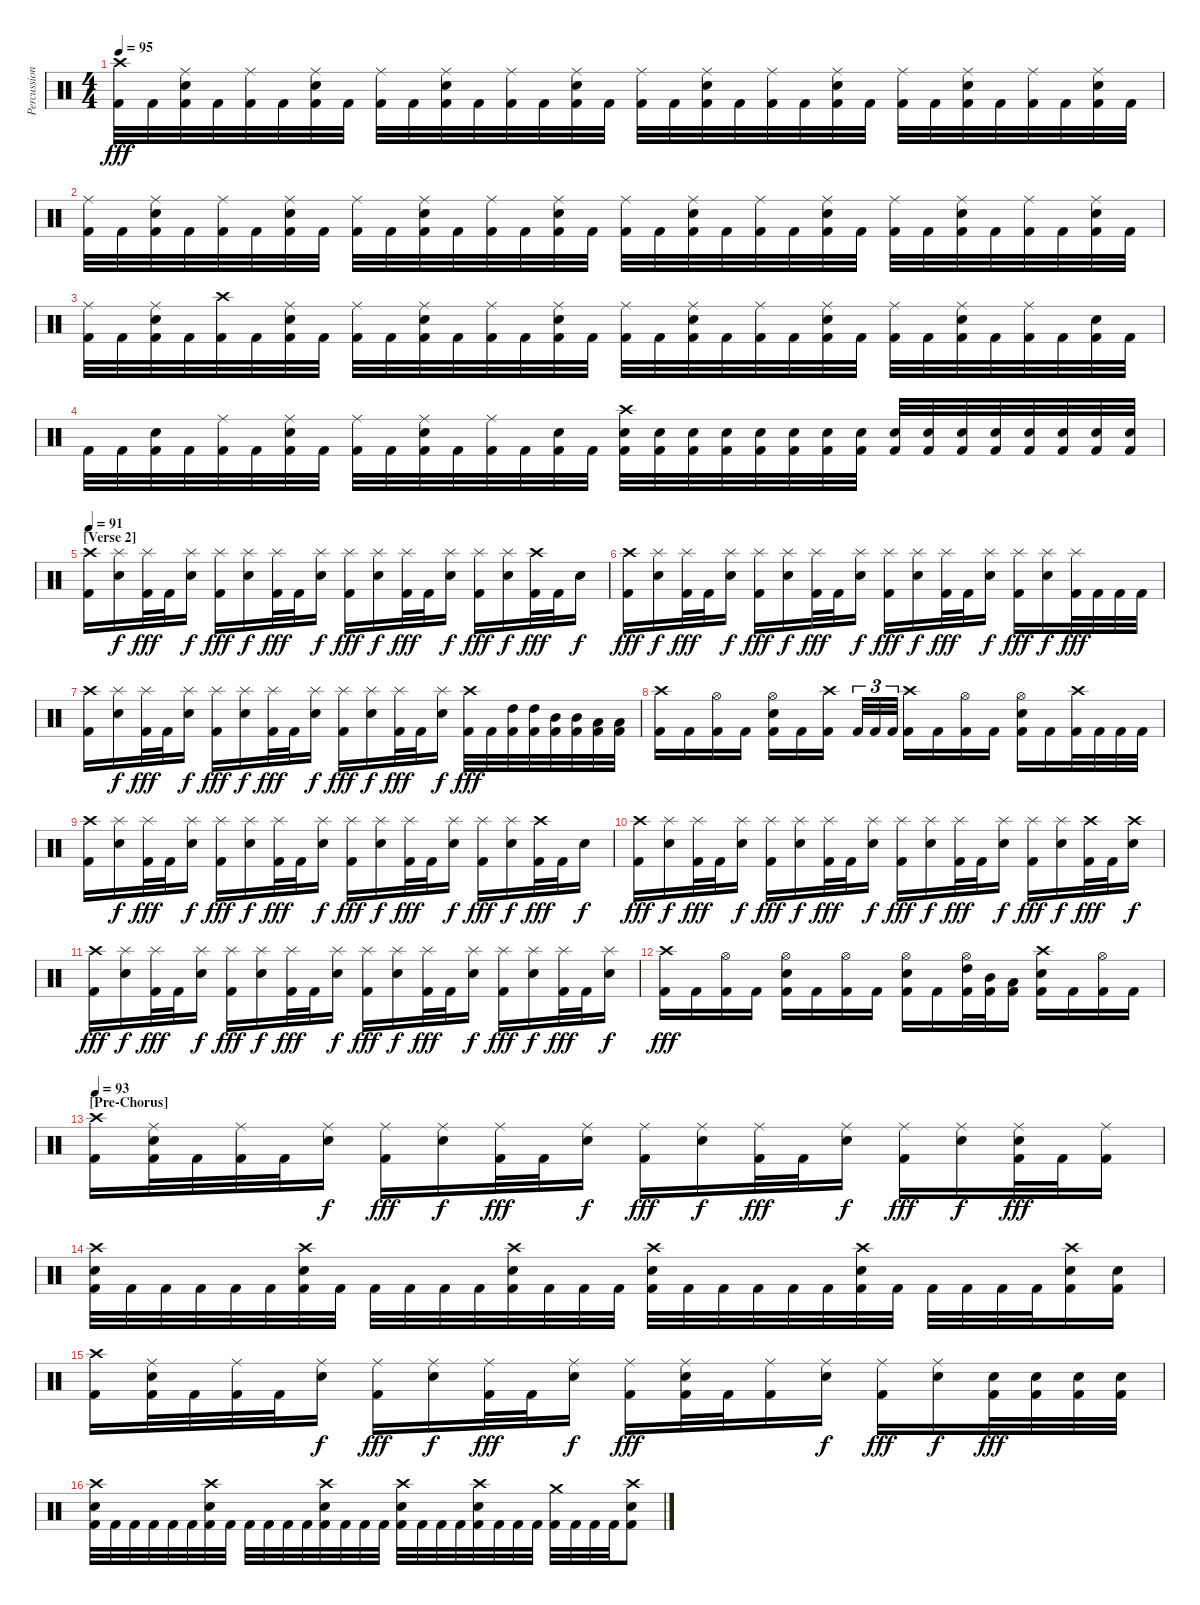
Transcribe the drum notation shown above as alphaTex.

\track ("Percussion" "Percussion") {instrument percussion}
\staff {score}
\articulation defaults
\ts (4 4)
\tempo 95
\clef neutral
\ks c
("Crash high (hit)" "Kick (hit) 2").32{dy fff} "Kick (hit) 2".32 ("Ride (middle)" "Snare (hit) 2" "Kick (hit) 2").32 "Kick (hit) 2".32 ("Ride (middle)" "Kick (hit) 2").32 "Kick (hit) 2".32 ("Ride (middle)" "Snare (hit) 2" "Kick (hit) 2").32 "Kick (hit) 2".32 ("Ride (middle)" "Kick (hit) 2").32 "Kick (hit) 2".32 ("Ride (middle)" "Snare (hit) 2" "Kick (hit) 2").32 "Kick (hit) 2".32 ("Ride (middle)" "Kick (hit) 2").32 "Kick (hit) 2".32 ("Ride (middle)" "Snare (hit) 2" "Kick (hit) 2").32 "Kick (hit) 2".32 ("Ride (middle)" "Kick (hit) 2").32 "Kick (hit) 2".32 ("Ride (middle)" "Snare (hit) 2" "Kick (hit) 2").32 "Kick (hit) 2".32 ("Ride (middle)" "Kick (hit) 2").32 "Kick (hit) 2".32 ("Ride (middle)" "Snare (hit) 2" "Kick (hit) 2").32 "Kick (hit) 2".32 ("Ride (middle)" "Kick (hit) 2").32 "Kick (hit) 2".32 ("Ride (middle)" "Snare (hit) 2" "Kick (hit) 2").32 "Kick (hit) 2".32 ("Ride (middle)" "Kick (hit) 2").32 "Kick (hit) 2".32 ("Ride (middle)" "Snare (hit) 2" "Kick (hit) 2").32 "Kick (hit) 2".32 |
("Ride (middle)" "Kick (hit) 2").32 "Kick (hit) 2".32 ("Ride (middle)" "Snare (hit) 2" "Kick (hit) 2").32 "Kick (hit) 2".32 ("Ride (middle)" "Kick (hit) 2").32 "Kick (hit) 2".32 ("Ride (middle)" "Snare (hit) 2" "Kick (hit) 2").32 "Kick (hit) 2".32 ("Ride (middle)" "Kick (hit) 2").32 "Kick (hit) 2".32 ("Ride (middle)" "Snare (hit) 2" "Kick (hit) 2").32 "Kick (hit) 2".32 ("Ride (middle)" "Kick (hit) 2").32 "Kick (hit) 2".32 ("Ride (middle)" "Snare (hit) 2" "Kick (hit) 2").32 "Kick (hit) 2".32 ("Ride (middle)" "Kick (hit) 2").32 "Kick (hit) 2".32 ("Ride (middle)" "Snare (hit) 2" "Kick (hit) 2").32 "Kick (hit) 2".32 ("Ride (middle)" "Kick (hit) 2").32 "Kick (hit) 2".32 ("Ride (middle)" "Snare (hit) 2" "Kick (hit) 2").32 "Kick (hit) 2".32 ("Ride (middle)" "Kick (hit) 2").32 "Kick (hit) 2".32 ("Ride (middle)" "Snare (hit) 2" "Kick (hit) 2").32 "Kick (hit) 2".32 ("Ride (middle)" "Kick (hit) 2").32 "Kick (hit) 2".32 ("Ride (middle)" "Snare (hit) 2" "Kick (hit) 2").32 "Kick (hit) 2".32 |
("Ride (middle)" "Kick (hit) 2").32 "Kick (hit) 2".32 ("Ride (middle)" "Snare (hit) 2" "Kick (hit) 2").32 "Kick (hit) 2".32 ("Crash high (hit)" "Kick (hit) 2").32 "Kick (hit) 2".32 ("Ride (middle)" "Snare (hit) 2" "Kick (hit) 2").32 "Kick (hit) 2".32 ("Ride (middle)" "Kick (hit) 2").32 "Kick (hit) 2".32 ("Ride (middle)" "Snare (hit) 2" "Kick (hit) 2").32 "Kick (hit) 2".32 ("Ride (middle)" "Kick (hit) 2").32 "Kick (hit) 2".32 ("Ride (middle)" "Snare (hit) 2" "Kick (hit) 2").32 "Kick (hit) 2".32 ("Ride (middle)" "Kick (hit) 2").32 "Kick (hit) 2".32 ("Ride (middle)" "Snare (hit) 2" "Kick (hit) 2").32 "Kick (hit) 2".32 ("Ride (middle)" "Kick (hit) 2").32 "Kick (hit) 2".32 ("Ride (middle)" "Snare (hit) 2" "Kick (hit) 2").32 "Kick (hit) 2".32 ("Ride (middle)" "Kick (hit) 2").32 "Kick (hit) 2".32 ("Ride (middle)" "Snare (hit) 2" "Kick (hit) 2").32 "Kick (hit) 2".32 ("Ride (middle)" "Kick (hit) 2").32 "Kick (hit) 2".32 ("Snare (hit) 2" "Kick (hit) 2").32 "Kick (hit) 2".32 |
"Kick (hit) 2".32 "Kick (hit) 2".32 ("Snare (hit) 2" "Kick (hit) 2").32 "Kick (hit) 2".32 ("Ride (middle)" "Kick (hit) 2").32 "Kick (hit) 2".32 ("Ride (middle)" "Snare (hit) 2" "Kick (hit) 2").32 "Kick (hit) 2".32 ("Ride (middle)" "Kick (hit) 2").32 "Kick (hit) 2".32 ("Ride (middle)" "Snare (hit) 2" "Kick (hit) 2").32 "Kick (hit) 2".32 ("Ride (middle)" "Kick (hit) 2").32 "Kick (hit) 2".32 ("Snare (hit) 2" "Kick (hit) 2").32 "Kick (hit) 2".32 ("Crash high (hit)" "Snare (hit) 2" "Kick (hit) 2").32 ("Snare (hit) 2" "Kick (hit) 2").32 ("Snare (hit) 2" "Kick (hit) 2").32 ("Snare (hit) 2" "Kick (hit) 2").32 ("Snare (hit) 2" "Kick (hit) 2").32 ("Snare (hit) 2" "Kick (hit) 2").32 ("Snare (hit) 2" "Kick (hit) 2").32 ("Snare (hit) 2" "Kick (hit) 2").32 ("Snare (hit) 2" "Kick (hit) 2").32 ("Snare (hit) 2" "Kick (hit) 2").32 ("Snare (hit) 2" "Kick (hit) 2").32 ("Snare (hit) 2" "Kick (hit) 2").32 ("Snare (hit) 2" "Kick (hit) 2").32 ("Snare (hit) 2" "Kick (hit) 2").32 ("Snare (hit) 2" "Kick (hit) 2").32 ("Snare (hit) 2" "Kick (hit) 2").32 |
\section ("" "[Verse 2]")
\tempo 91
("Crash high (hit)" "Kick (hit) 2").16 ("Splash (hit)" "Snare (hit) 2").16{dy f} ("Splash (hit)" "Kick (hit) 2").32{dy fff} "Kick (hit) 2".32 ("Splash (hit)" "Snare (hit) 2").16{dy f} ("Splash (hit)" "Kick (hit) 2").16{dy fff} ("Splash (hit)" "Snare (hit) 2").16{dy f} ("Splash (hit)" "Kick (hit) 2").32{dy fff} "Kick (hit) 2".32 ("Splash (hit)" "Snare (hit) 2").16{dy f} ("Splash (hit)" "Kick (hit) 2").16{dy fff} ("Splash (hit)" "Snare (hit) 2").16{dy f} ("Splash (hit)" "Kick (hit) 2").32{dy fff} "Kick (hit) 2".32 ("Splash (hit)" "Snare (hit) 2").16{dy f} ("Splash (hit)" "Kick (hit) 2").16{dy fff} ("Splash (hit)" "Snare (hit) 2").16{dy f} ("Crash high (hit)" "Kick (hit) 2").32{dy fff} "Kick (hit) 2".32 "Snare (hit) 2".16{dy f} |
("Crash high (hit)" "Kick (hit) 2").16{dy fff} ("Splash (hit)" "Snare (hit) 2").16{dy f} ("Splash (hit)" "Kick (hit) 2").32{dy fff} "Kick (hit) 2".32 ("Splash (hit)" "Snare (hit) 2").16{dy f} ("Splash (hit)" "Kick (hit) 2").16{dy fff} ("Splash (hit)" "Snare (hit) 2").16{dy f} ("Splash (hit)" "Kick (hit) 2").32{dy fff} "Kick (hit) 2".32 ("Splash (hit)" "Snare (hit) 2").16{dy f} ("Splash (hit)" "Kick (hit) 2").16{dy fff} ("Splash (hit)" "Snare (hit) 2").16{dy f} ("Splash (hit)" "Kick (hit) 2").32{dy fff} "Kick (hit) 2".32 ("Splash (hit)" "Snare (hit) 2").16{dy f} ("Splash (hit)" "Kick (hit) 2").16{dy fff} ("Splash (hit)" "Snare (hit) 2").16{dy f} ("Splash (hit)" "Kick (hit) 2").32{dy fff} "Kick (hit) 2".32 "Kick (hit) 2".32 "Kick (hit) 2".32 |
("Crash high (hit)" "Kick (hit) 2").16 ("Splash (hit)" "Snare (hit) 2").16{dy f} ("Splash (hit)" "Kick (hit) 2").32{dy fff} "Kick (hit) 2".32 ("Splash (hit)" "Snare (hit) 2").16{dy f} ("Splash (hit)" "Kick (hit) 2").16{dy fff} ("Splash (hit)" "Snare (hit) 2").16{dy f} ("Splash (hit)" "Kick (hit) 2").32{dy fff} "Kick (hit) 2".32 ("Splash (hit)" "Snare (hit) 2").16{dy f} ("Splash (hit)" "Kick (hit) 2").16{dy fff} ("Splash (hit)" "Snare (hit) 2").16{dy f} ("Splash (hit)" "Kick (hit) 2").32{dy fff} "Kick (hit) 2".32 ("Splash (hit)" "Snare (hit) 2").16{dy f} ("Crash high (hit)" "Kick (hit) 2").32{dy fff} "Kick (hit) 2".32 ("High Tom (hit)" "Kick (hit) 2").32 ("High Tom (hit)" "Kick (hit) 2").32 ("Mid Tom (hit)" "Kick (hit) 2").32 ("Mid Tom (hit)" "Kick (hit) 2").32 ("Low Tom (hit)" "Kick (hit) 2").32 ("Low Tom (hit)" "Kick (hit) 2").32 |
("Crash high (hit)" "Kick (hit) 2").16 "Kick (hit) 2".16 ("Hi-Hat (open)" "Kick (hit) 2").16 "Kick (hit) 2".16 ("Hi-Hat (open)" "Snare (hit) 2" "Kick (hit) 2").16 "Kick (hit) 2".16 ("Crash high (hit)" "Kick (hit) 2").16 "Kick (hit) 2".32{tu (3 2)} "Kick (hit) 2".32{tu (3 2)} "Kick (hit) 2".32{tu (3 2)} ("Crash high (hit)" "Kick (hit) 2").16 "Kick (hit) 2".16 ("Hi-Hat (open)" "Kick (hit) 2").16 "Kick (hit) 2".16 ("Hi-Hat (open)" "Snare (hit) 2" "Kick (hit) 2").16 "Kick (hit) 2".16 ("Crash high (hit)" "Kick (hit) 2").32 "Kick (hit) 2".32 "Kick (hit) 2".32 "Kick (hit) 2".32 |
("Crash high (hit)" "Kick (hit) 2").16 ("Splash (hit)" "Snare (hit) 2").16{dy f} ("Splash (hit)" "Kick (hit) 2").32{dy fff} "Kick (hit) 2".32 ("Splash (hit)" "Snare (hit) 2").16{dy f} ("Splash (hit)" "Kick (hit) 2").16{dy fff} ("Splash (hit)" "Snare (hit) 2").16{dy f} ("Splash (hit)" "Kick (hit) 2").32{dy fff} "Kick (hit) 2".32 ("Splash (hit)" "Snare (hit) 2").16{dy f} ("Splash (hit)" "Kick (hit) 2").16{dy fff} ("Splash (hit)" "Snare (hit) 2").16{dy f} ("Splash (hit)" "Kick (hit) 2").32{dy fff} "Kick (hit) 2".32 ("Splash (hit)" "Snare (hit) 2").16{dy f} ("Splash (hit)" "Kick (hit) 2").16{dy fff} ("Splash (hit)" "Snare (hit) 2").16{dy f} ("Crash high (hit)" "Kick (hit) 2").32{dy fff} "Kick (hit) 2".32 "Snare (hit) 2".16{dy f} |
("Crash high (hit)" "Kick (hit) 2").16{dy fff} ("Splash (hit)" "Snare (hit) 2").16{dy f} ("Splash (hit)" "Kick (hit) 2").32{dy fff} "Kick (hit) 2".32 ("Splash (hit)" "Snare (hit) 2").16{dy f} ("Splash (hit)" "Kick (hit) 2").16{dy fff} ("Splash (hit)" "Snare (hit) 2").16{dy f} ("Splash (hit)" "Kick (hit) 2").32{dy fff} "Kick (hit) 2".32 ("Splash (hit)" "Snare (hit) 2").16{dy f} ("Splash (hit)" "Kick (hit) 2").16{dy fff} ("Splash (hit)" "Snare (hit) 2").16{dy f} ("Splash (hit)" "Kick (hit) 2").32{dy fff} "Kick (hit) 2".32 ("Splash (hit)" "Snare (hit) 2").16{dy f} ("Splash (hit)" "Kick (hit) 2").16{dy fff} ("Splash (hit)" "Snare (hit) 2").16{dy f} ("Crash high (hit)" "Kick (hit) 2").32{dy fff} "Kick (hit) 2".32 ("Crash high (hit)" "Snare (hit) 2").16{dy f} |
("Crash high (hit)" "Kick (hit) 2").16{dy fff} ("Splash (hit)" "Snare (hit) 2").16{dy f} ("Splash (hit)" "Kick (hit) 2").32{dy fff} "Kick (hit) 2".32 ("Splash (hit)" "Snare (hit) 2").16{dy f} ("Splash (hit)" "Kick (hit) 2").16{dy fff} ("Splash (hit)" "Snare (hit) 2").16{dy f} ("Splash (hit)" "Kick (hit) 2").32{dy fff} "Kick (hit) 2".32 ("Splash (hit)" "Snare (hit) 2").16{dy f} ("Splash (hit)" "Kick (hit) 2").16{dy fff} ("Splash (hit)" "Snare (hit) 2").16{dy f} ("Splash (hit)" "Kick (hit) 2").32{dy fff} "Kick (hit) 2".32 ("Splash (hit)" "Snare (hit) 2").16{dy f} ("Splash (hit)" "Kick (hit) 2").16{dy fff} ("Splash (hit)" "Snare (hit) 2").16{dy f} ("Splash (hit)" "Kick (hit) 2").32{dy fff} "Kick (hit) 2".32 ("Splash (hit)" "Snare (hit) 2").16{dy f} |
("Crash high (hit)" "Kick (hit) 2").16{dy fff} "Kick (hit) 2".16 ("Hi-Hat (open)" "Kick (hit) 2").16 "Kick (hit) 2".16 ("Hi-Hat (open)" "Snare (hit) 2" "Kick (hit) 2").16 "Kick (hit) 2".16 ("Hi-Hat (open)" "Kick (hit) 2").16 "Kick (hit) 2".16 ("Hi-Hat (open)" "Snare (hit) 2" "Kick (hit) 2").16 "Kick (hit) 2".16 ("Hi-Hat (open)" "High Tom (hit)" "Kick (hit) 2").32 ("Mid Tom (hit)" "Kick (hit) 2").32 ("Low Tom (hit)" "Kick (hit) 2").16 ("Crash high (hit)" "Snare (hit) 2" "Kick (hit) 2").16 "Kick (hit) 2".16 ("Hi-Hat (open)" "Kick (hit) 2").16 "Kick (hit) 2".16 |
\section ("" "[Pre-Chorus]")
\tempo 93
("Crash high (hit)" "Kick (hit) 2").16 ("Ride (middle)" "Snare (hit) 2" "Kick (hit) 2").32 "Kick (hit) 2".32 ("Ride (middle)" "Kick (hit) 2").32 "Kick (hit) 2".32 ("Ride (middle)" "Snare (hit) 2").16{dy f} ("Ride (middle)" "Kick (hit) 2").16{dy fff} ("Ride (middle)" "Snare (hit) 2").16{dy f} ("Ride (middle)" "Kick (hit) 2").32{dy fff} "Kick (hit) 2".32 ("Ride (middle)" "Snare (hit) 2").16{dy f} ("Ride (middle)" "Kick (hit) 2").16{dy fff} ("Ride (middle)" "Snare (hit) 2").16{dy f} ("Ride (middle)" "Kick (hit) 2").32{dy fff} "Kick (hit) 2".32 ("Ride (middle)" "Snare (hit) 2").16{dy f} ("Ride (middle)" "Kick (hit) 2").16{dy fff} ("Ride (middle)" "Snare (hit) 2").16{dy f} ("Ride (middle)" "Snare (hit) 2" "Kick (hit) 2").32{dy fff} "Kick (hit) 2".32 ("Ride (middle)" "Kick (hit) 2").16 |
("Crash high (hit)" "Snare (hit) 2" "Kick (hit) 2").32 "Kick (hit) 2".32 "Kick (hit) 2".32 "Kick (hit) 2".32 "Kick (hit) 2".32 "Kick (hit) 2".32 ("Crash high (hit)" "Snare (hit) 2" "Kick (hit) 2").32 "Kick (hit) 2".32 "Kick (hit) 2".32 "Kick (hit) 2".32 "Kick (hit) 2".32 "Kick (hit) 2".32 ("Crash high (hit)" "Snare (hit) 2" "Kick (hit) 2").32 "Kick (hit) 2".32 "Kick (hit) 2".32 "Kick (hit) 2".32 ("Crash high (hit)" "Snare (hit) 2" "Kick (hit) 2").32 "Kick (hit) 2".32 "Kick (hit) 2".32 "Kick (hit) 2".32 "Kick (hit) 2".32 "Kick (hit) 2".32 ("Crash high (hit)" "Snare (hit) 2" "Kick (hit) 2").32 "Kick (hit) 2".32 "Kick (hit) 2".32 "Kick (hit) 2".32 "Kick (hit) 2".32 "Kick (hit) 2".32 ("Crash high (hit)" "Snare (hit) 2" "Kick (hit) 2").16 ("Snare (hit) 2" "Kick (hit) 2").16 |
("Crash high (hit)" "Kick (hit) 2").16 ("Ride (middle)" "Snare (hit) 2" "Kick (hit) 2").32 "Kick (hit) 2".32 ("Ride (middle)" "Kick (hit) 2").32 "Kick (hit) 2".32 ("Ride (middle)" "Snare (hit) 2").16{dy f} ("Ride (middle)" "Kick (hit) 2").16{dy fff} ("Ride (middle)" "Snare (hit) 2").16{dy f} ("Ride (middle)" "Kick (hit) 2").32{dy fff} "Kick (hit) 2".32 ("Ride (middle)" "Snare (hit) 2").16{dy f} ("Ride (middle)" "Kick (hit) 2").16{dy fff} ("Ride (middle)" "Snare (hit) 2" "Kick (hit) 2").32 "Kick (hit) 2".32 ("Ride (middle)" "Kick (hit) 2").16 ("Ride (middle)" "Snare (hit) 2").16{dy f} ("Ride (middle)" "Kick (hit) 2").16{dy fff} ("Ride (middle)" "Snare (hit) 2").16{dy f} ("Snare (hit) 2" "Kick (hit) 2").32{dy fff} ("Snare (hit) 2" "Kick (hit) 2").32 ("Snare (hit) 2" "Kick (hit) 2").32 ("Snare (hit) 2" "Kick (hit) 2").32 |
("Crash high (hit)" "Snare (hit) 2" "Kick (hit) 2").32 "Kick (hit) 2".32 "Kick (hit) 2".32 "Kick (hit) 2".32 "Kick (hit) 2".32 "Kick (hit) 2".32 ("Crash high (hit)" "Snare (hit) 2" "Kick (hit) 2").32 "Kick (hit) 2".32 "Kick (hit) 2".32 "Kick (hit) 2".32 "Kick (hit) 2".32 "Kick (hit) 2".32 ("Crash high (hit)" "Snare (hit) 2" "Kick (hit) 2").32 "Kick (hit) 2".32 "Kick (hit) 2".32 "Kick (hit) 2".32 ("Crash high (hit)" "Snare (hit) 2" "Kick (hit) 2").32 "Kick (hit) 2".32 "Kick (hit) 2".32 "Kick (hit) 2".32 ("Crash high (hit)" "Snare (hit) 2" "Kick (hit) 2").32 "Kick (hit) 2".32 "Kick (hit) 2".32 "Kick (hit) 2".32 ("Crash medium (hit)" "Kick (hit) 2").32 "Kick (hit) 2".32 "Kick (hit) 2".32 "Kick (hit) 2".32 ("Crash high (hit)" "Snare (hit) 2" "Kick (hit) 2").8
